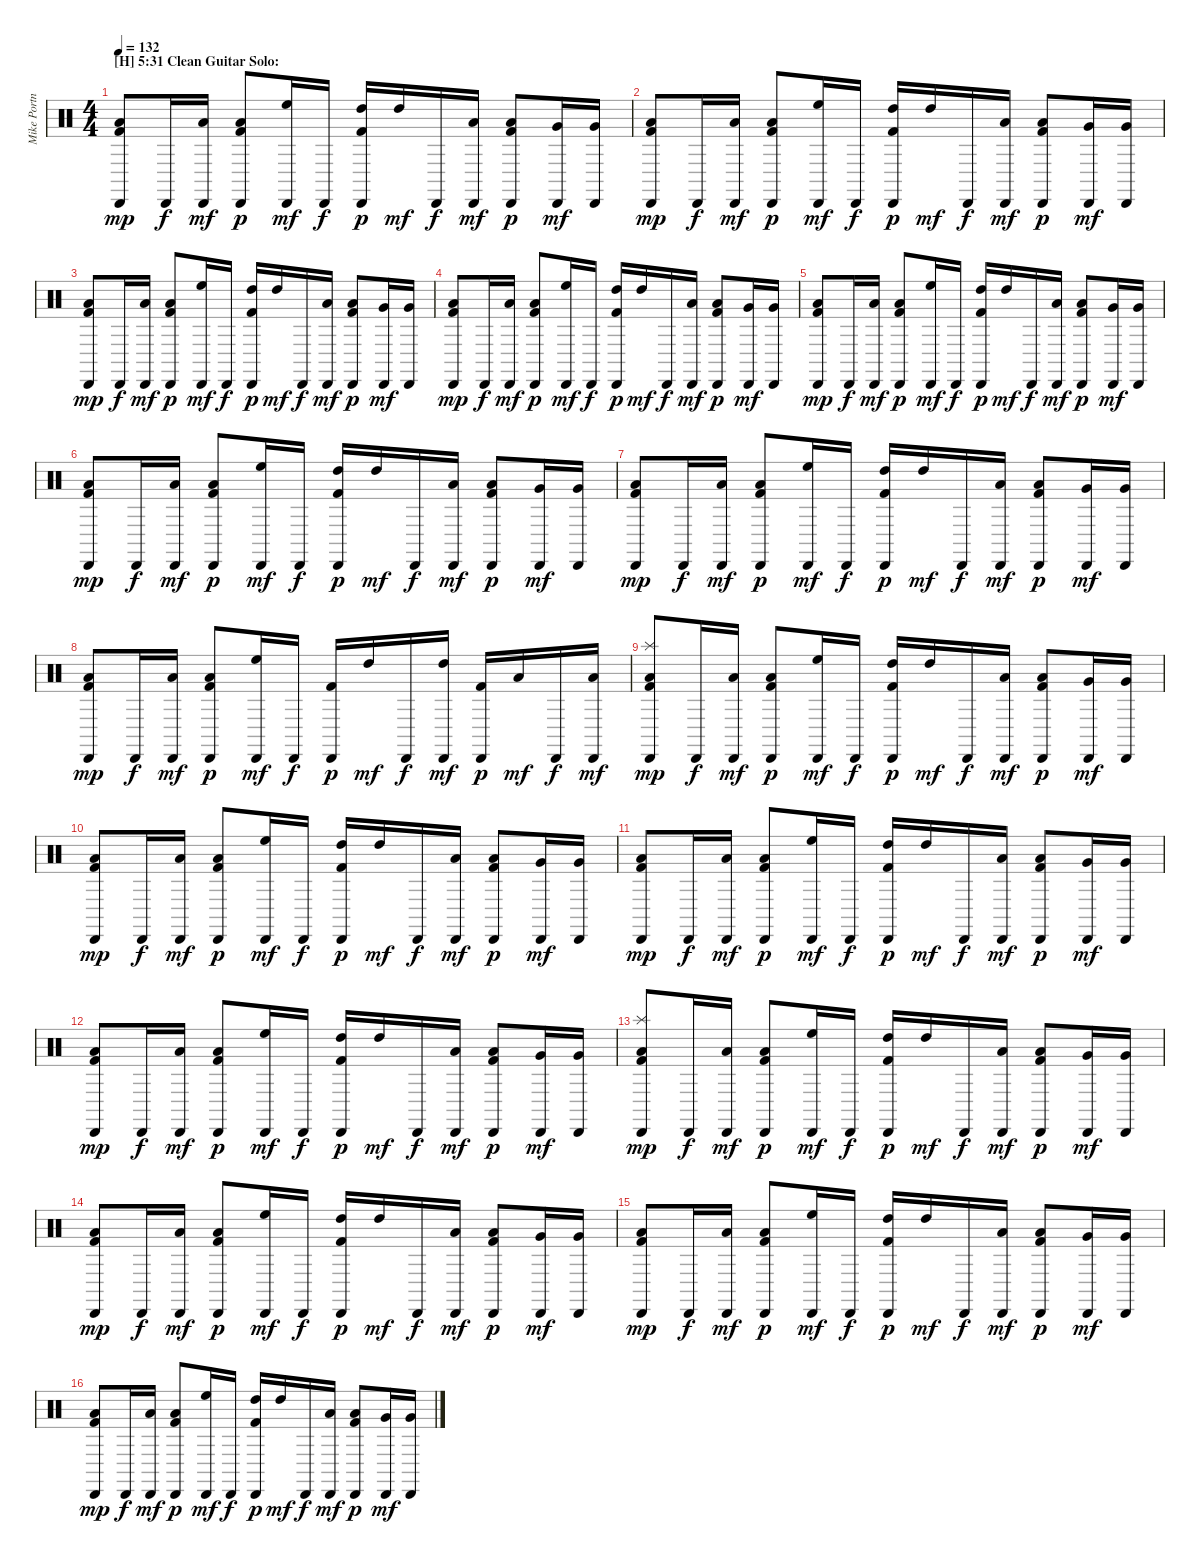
\track ("Mike Portnoy - Drum" "Mike Portn") {instrument percussion}
\staff {score}
\articulation defaults
\ts (4 4)
\section ("" "[H] 5:31 Clean Guitar Solo:")
\tempo 132
\clef neutral
\ks c
("Cabasa (hit)" "Low Floor Tom (hit)" "Kick (hit) 2").8{dy mp} "Cabasa (hit)".16{dy f} ("Cabasa (hit)" "Low Floor Tom (hit)").16{dy mf} ("Cabasa (hit)" "Low Floor Tom (hit)" "Kick (hit) 2").8{dy p} ("Cabasa (hit)" "High Floor Tom (hit)").16{dy mf} "Cabasa (hit)".16{dy f} ("Cabasa (hit)" "High Tom (hit)" "Kick (hit) 2").16{dy p} "High Tom (hit)".16{dy mf} "Cabasa (hit)".16{dy f} ("Cabasa (hit)" "Low Tom (hit)").16{dy mf} ("Cabasa (hit)" "Low Tom (hit)" "Kick (hit) 2").8{dy p} ("Cabasa (hit)" "Very Low Tom (hit)").16{dy mf} ("Cabasa (hit)" "Very Low Tom (hit)").16 |
("Cabasa (hit)" "Low Floor Tom (hit)" "Kick (hit) 2").8{dy mp} "Cabasa (hit)".16{dy f} ("Cabasa (hit)" "Low Floor Tom (hit)").16{dy mf} ("Cabasa (hit)" "Low Floor Tom (hit)" "Kick (hit) 2").8{dy p} ("Cabasa (hit)" "High Floor Tom (hit)").16{dy mf} "Cabasa (hit)".16{dy f} ("Cabasa (hit)" "High Tom (hit)" "Kick (hit) 2").16{dy p} "High Tom (hit)".16{dy mf} "Cabasa (hit)".16{dy f} ("Cabasa (hit)" "Low Tom (hit)").16{dy mf} ("Cabasa (hit)" "Low Tom (hit)" "Kick (hit) 2").8{dy p} ("Cabasa (hit)" "Very Low Tom (hit)").16{dy mf} ("Cabasa (hit)" "Very Low Tom (hit)").16 |
("Cabasa (hit)" "Low Floor Tom (hit)" "Kick (hit) 2").8{dy mp} "Cabasa (hit)".16{dy f} ("Cabasa (hit)" "Low Floor Tom (hit)").16{dy mf} ("Cabasa (hit)" "Low Floor Tom (hit)" "Kick (hit) 2").8{dy p} ("Cabasa (hit)" "High Floor Tom (hit)").16{dy mf} "Cabasa (hit)".16{dy f} ("Cabasa (hit)" "High Tom (hit)" "Kick (hit) 2").16{dy p} "High Tom (hit)".16{dy mf} "Cabasa (hit)".16{dy f} ("Cabasa (hit)" "Low Tom (hit)").16{dy mf} ("Cabasa (hit)" "Low Tom (hit)" "Kick (hit) 2").8{dy p} ("Cabasa (hit)" "Very Low Tom (hit)").16{dy mf} ("Cabasa (hit)" "Very Low Tom (hit)").16 |
("Cabasa (hit)" "Low Floor Tom (hit)" "Kick (hit) 2").8{dy mp} "Cabasa (hit)".16{dy f} ("Cabasa (hit)" "Low Floor Tom (hit)").16{dy mf} ("Cabasa (hit)" "Low Floor Tom (hit)" "Kick (hit) 2").8{dy p} ("Cabasa (hit)" "High Floor Tom (hit)").16{dy mf} "Cabasa (hit)".16{dy f} ("Cabasa (hit)" "High Tom (hit)" "Kick (hit) 2").16{dy p} "High Tom (hit)".16{dy mf} "Cabasa (hit)".16{dy f} ("Cabasa (hit)" "Low Tom (hit)").16{dy mf} ("Cabasa (hit)" "Low Tom (hit)" "Kick (hit) 2").8{dy p} ("Cabasa (hit)" "Very Low Tom (hit)").16{dy mf} ("Cabasa (hit)" "Very Low Tom (hit)").16 |
("Cabasa (hit)" "Low Floor Tom (hit)" "Kick (hit) 2").8{dy mp} "Cabasa (hit)".16{dy f} ("Cabasa (hit)" "Low Floor Tom (hit)").16{dy mf} ("Cabasa (hit)" "Low Floor Tom (hit)" "Kick (hit) 2").8{dy p} ("Cabasa (hit)" "High Floor Tom (hit)").16{dy mf} "Cabasa (hit)".16{dy f} ("Cabasa (hit)" "High Tom (hit)" "Kick (hit) 2").16{dy p} "High Tom (hit)".16{dy mf} "Cabasa (hit)".16{dy f} ("Cabasa (hit)" "Low Tom (hit)").16{dy mf} ("Cabasa (hit)" "Low Tom (hit)" "Kick (hit) 2").8{dy p} ("Cabasa (hit)" "Very Low Tom (hit)").16{dy mf} ("Cabasa (hit)" "Very Low Tom (hit)").16 |
("Cabasa (hit)" "Low Floor Tom (hit)" "Kick (hit) 2").8{dy mp} "Cabasa (hit)".16{dy f} ("Cabasa (hit)" "Low Floor Tom (hit)").16{dy mf} ("Cabasa (hit)" "Low Floor Tom (hit)" "Kick (hit) 2").8{dy p} ("Cabasa (hit)" "High Floor Tom (hit)").16{dy mf} "Cabasa (hit)".16{dy f} ("Cabasa (hit)" "High Tom (hit)" "Kick (hit) 2").16{dy p} "High Tom (hit)".16{dy mf} "Cabasa (hit)".16{dy f} ("Cabasa (hit)" "Low Tom (hit)").16{dy mf} ("Cabasa (hit)" "Low Tom (hit)" "Kick (hit) 2").8{dy p} ("Cabasa (hit)" "Very Low Tom (hit)").16{dy mf} ("Cabasa (hit)" "Very Low Tom (hit)").16 |
("Cabasa (hit)" "Low Floor Tom (hit)" "Kick (hit) 2").8{dy mp} "Cabasa (hit)".16{dy f} ("Cabasa (hit)" "Low Floor Tom (hit)").16{dy mf} ("Cabasa (hit)" "Low Floor Tom (hit)" "Kick (hit) 2").8{dy p} ("Cabasa (hit)" "High Floor Tom (hit)").16{dy mf} "Cabasa (hit)".16{dy f} ("Cabasa (hit)" "High Tom (hit)" "Kick (hit) 2").16{dy p} "High Tom (hit)".16{dy mf} "Cabasa (hit)".16{dy f} ("Cabasa (hit)" "Low Tom (hit)").16{dy mf} ("Cabasa (hit)" "Low Tom (hit)" "Kick (hit) 2").8{dy p} ("Cabasa (hit)" "Very Low Tom (hit)").16{dy mf} ("Cabasa (hit)" "Very Low Tom (hit)").16 |
("Cabasa (hit)" "Low Floor Tom (hit)" "Kick (hit) 2").8{dy mp} "Cabasa (hit)".16{dy f} ("Cabasa (hit)" "Low Floor Tom (hit)").16{dy mf} ("Cabasa (hit)" "Low Floor Tom (hit)" "Kick (hit) 2").8{dy p} ("Cabasa (hit)" "High Floor Tom (hit)").16{dy mf} "Cabasa (hit)".16{dy f} ("Cabasa (hit)" "Kick (hit) 2").16{dy p} "High Tom (hit)".16{dy mf} "Cabasa (hit)".16{dy f} ("Cabasa (hit)" "High Tom (hit)").16{dy mf} ("Cabasa (hit)" "Kick (hit) 2").16{dy p} "Low Tom (hit)".16{dy mf} "Cabasa (hit)".16{dy f} ("Cabasa (hit)" "Low Tom (hit)").16{dy mf} |
("Cabasa (hit)" "Splash (hit)" "Low Floor Tom (hit)" "Kick (hit) 2").8{dy mp} "Cabasa (hit)".16{dy f} ("Cabasa (hit)" "Low Floor Tom (hit)").16{dy mf} ("Cabasa (hit)" "Low Floor Tom (hit)" "Kick (hit) 2").8{dy p} ("Cabasa (hit)" "High Floor Tom (hit)").16{dy mf} "Cabasa (hit)".16{dy f} ("Cabasa (hit)" "High Tom (hit)" "Kick (hit) 2").16{dy p} "High Tom (hit)".16{dy mf} "Cabasa (hit)".16{dy f} ("Cabasa (hit)" "Low Tom (hit)").16{dy mf} ("Cabasa (hit)" "Low Tom (hit)" "Kick (hit) 2").8{dy p} ("Cabasa (hit)" "Very Low Tom (hit)").16{dy mf} ("Cabasa (hit)" "Very Low Tom (hit)").16 |
("Cabasa (hit)" "Low Floor Tom (hit)" "Kick (hit) 2").8{dy mp} "Cabasa (hit)".16{dy f} ("Cabasa (hit)" "Low Floor Tom (hit)").16{dy mf} ("Cabasa (hit)" "Low Floor Tom (hit)" "Kick (hit) 2").8{dy p} ("Cabasa (hit)" "High Floor Tom (hit)").16{dy mf} "Cabasa (hit)".16{dy f} ("Cabasa (hit)" "High Tom (hit)" "Kick (hit) 2").16{dy p} "High Tom (hit)".16{dy mf} "Cabasa (hit)".16{dy f} ("Cabasa (hit)" "Low Tom (hit)").16{dy mf} ("Cabasa (hit)" "Low Tom (hit)" "Kick (hit) 2").8{dy p} ("Cabasa (hit)" "Very Low Tom (hit)").16{dy mf} ("Cabasa (hit)" "Very Low Tom (hit)").16 |
("Cabasa (hit)" "Low Floor Tom (hit)" "Kick (hit) 2").8{dy mp} "Cabasa (hit)".16{dy f} ("Cabasa (hit)" "Low Floor Tom (hit)").16{dy mf} ("Cabasa (hit)" "Low Floor Tom (hit)" "Kick (hit) 2").8{dy p} ("Cabasa (hit)" "High Floor Tom (hit)").16{dy mf} "Cabasa (hit)".16{dy f} ("Cabasa (hit)" "High Tom (hit)" "Kick (hit) 2").16{dy p} "High Tom (hit)".16{dy mf} "Cabasa (hit)".16{dy f} ("Cabasa (hit)" "Low Tom (hit)").16{dy mf} ("Cabasa (hit)" "Low Tom (hit)" "Kick (hit) 2").8{dy p} ("Cabasa (hit)" "Very Low Tom (hit)").16{dy mf} ("Cabasa (hit)" "Very Low Tom (hit)").16 |
("Cabasa (hit)" "Low Floor Tom (hit)" "Kick (hit) 2").8{dy mp} "Cabasa (hit)".16{dy f} ("Cabasa (hit)" "Low Floor Tom (hit)").16{dy mf} ("Cabasa (hit)" "Low Floor Tom (hit)" "Kick (hit) 2").8{dy p} ("Cabasa (hit)" "High Floor Tom (hit)").16{dy mf} "Cabasa (hit)".16{dy f} ("Cabasa (hit)" "High Tom (hit)" "Kick (hit) 2").16{dy p} "High Tom (hit)".16{dy mf} "Cabasa (hit)".16{dy f} ("Cabasa (hit)" "Low Tom (hit)").16{dy mf} ("Cabasa (hit)" "Low Tom (hit)" "Kick (hit) 2").8{dy p} ("Cabasa (hit)" "Very Low Tom (hit)").16{dy mf} ("Cabasa (hit)" "Very Low Tom (hit)").16 |
("Cabasa (hit)" "Splash (hit)" "Low Floor Tom (hit)" "Kick (hit) 2").8{dy mp} "Cabasa (hit)".16{dy f} ("Cabasa (hit)" "Low Floor Tom (hit)").16{dy mf} ("Cabasa (hit)" "Low Floor Tom (hit)" "Kick (hit) 2").8{dy p} ("Cabasa (hit)" "High Floor Tom (hit)").16{dy mf} "Cabasa (hit)".16{dy f} ("Cabasa (hit)" "High Tom (hit)" "Kick (hit) 2").16{dy p} "High Tom (hit)".16{dy mf} "Cabasa (hit)".16{dy f} ("Cabasa (hit)" "Low Tom (hit)").16{dy mf} ("Cabasa (hit)" "Low Tom (hit)" "Kick (hit) 2").8{dy p} ("Cabasa (hit)" "Very Low Tom (hit)").16{dy mf} ("Cabasa (hit)" "Very Low Tom (hit)").16 |
("Cabasa (hit)" "Low Floor Tom (hit)" "Kick (hit) 2").8{dy mp} "Cabasa (hit)".16{dy f} ("Cabasa (hit)" "Low Floor Tom (hit)").16{dy mf} ("Cabasa (hit)" "Low Floor Tom (hit)" "Kick (hit) 2").8{dy p} ("Cabasa (hit)" "High Floor Tom (hit)").16{dy mf} "Cabasa (hit)".16{dy f} ("Cabasa (hit)" "High Tom (hit)" "Kick (hit) 2").16{dy p} "High Tom (hit)".16{dy mf} "Cabasa (hit)".16{dy f} ("Cabasa (hit)" "Low Tom (hit)").16{dy mf} ("Cabasa (hit)" "Low Tom (hit)" "Kick (hit) 2").8{dy p} ("Cabasa (hit)" "Very Low Tom (hit)").16{dy mf} ("Cabasa (hit)" "Very Low Tom (hit)").16 |
("Cabasa (hit)" "Low Floor Tom (hit)" "Kick (hit) 2").8{dy mp} "Cabasa (hit)".16{dy f} ("Cabasa (hit)" "Low Floor Tom (hit)").16{dy mf} ("Cabasa (hit)" "Low Floor Tom (hit)" "Kick (hit) 2").8{dy p} ("Cabasa (hit)" "High Floor Tom (hit)").16{dy mf} "Cabasa (hit)".16{dy f} ("Cabasa (hit)" "High Tom (hit)" "Kick (hit) 2").16{dy p} "High Tom (hit)".16{dy mf} "Cabasa (hit)".16{dy f} ("Cabasa (hit)" "Low Tom (hit)").16{dy mf} ("Cabasa (hit)" "Low Tom (hit)" "Kick (hit) 2").8{dy p} ("Cabasa (hit)" "Very Low Tom (hit)").16{dy mf} ("Cabasa (hit)" "Very Low Tom (hit)").16 |
("Cabasa (hit)" "Low Floor Tom (hit)" "Kick (hit) 2").8{dy mp} "Cabasa (hit)".16{dy f} ("Cabasa (hit)" "Low Floor Tom (hit)").16{dy mf} ("Cabasa (hit)" "Low Floor Tom (hit)" "Kick (hit) 2").8{dy p} ("Cabasa (hit)" "High Floor Tom (hit)").16{dy mf} "Cabasa (hit)".16{dy f} ("Cabasa (hit)" "High Tom (hit)" "Kick (hit) 2").16{dy p} "High Tom (hit)".16{dy mf} "Cabasa (hit)".16{dy f} ("Cabasa (hit)" "Low Tom (hit)").16{dy mf} ("Cabasa (hit)" "Low Tom (hit)" "Kick (hit) 2").8{dy p} ("Cabasa (hit)" "Very Low Tom (hit)").16{dy mf} ("Cabasa (hit)" "Very Low Tom (hit)").16
